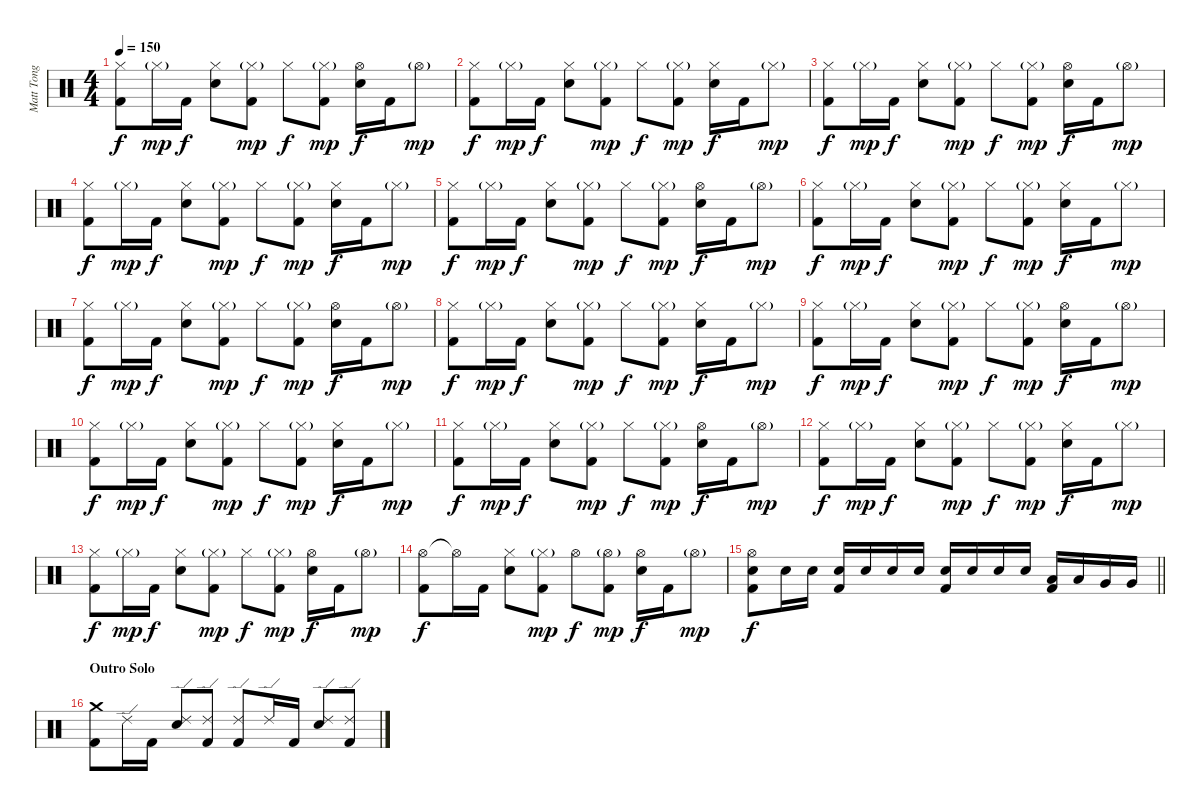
\track ("Matt Tong" "Matt Tong") {instrument percussion}
\staff {score}
\articulation defaults
\ts (4 4)
\tempo 150
\clef neutral
\ks c
("Hi-Hat (closed)" "Kick (hit) 2").8{dy f} "Hi-Hat (closed)"{g}.16{dy mp} "Kick (hit) 2".16{dy f} ("Hi-Hat (closed)" "Electric Snare (hit)").8 ("Hi-Hat (closed)"{g} "Kick (hit) 2").8{dy mp} "Hi-Hat (closed)".8{dy f} ("Hi-Hat (closed)"{g} "Kick (hit) 2").8{dy mp} ("Hi-Hat (open)" "Electric Snare (hit)").16{dy f} "Kick (hit) 2".16 "Hi-Hat (open)"{g}.8{dy mp} |
("Hi-Hat (closed)" "Kick (hit) 2").8{dy f} "Hi-Hat (closed)"{g}.16{dy mp} "Kick (hit) 2".16{dy f} ("Hi-Hat (closed)" "Electric Snare (hit)").8 ("Hi-Hat (closed)"{g} "Kick (hit) 2").8{dy mp} "Hi-Hat (closed)".8{dy f} ("Hi-Hat (closed)"{g} "Kick (hit) 2").8{dy mp} ("Hi-Hat (closed)" "Electric Snare (hit)").16{dy f} "Kick (hit) 2".16 "Hi-Hat (closed)"{g}.8{dy mp} |
("Hi-Hat (closed)" "Kick (hit) 2").8{dy f} "Hi-Hat (closed)"{g}.16{dy mp} "Kick (hit) 2".16{dy f} ("Hi-Hat (closed)" "Electric Snare (hit)").8 ("Hi-Hat (closed)"{g} "Kick (hit) 2").8{dy mp} "Hi-Hat (closed)".8{dy f} ("Hi-Hat (closed)"{g} "Kick (hit) 2").8{dy mp} ("Hi-Hat (open)" "Electric Snare (hit)").16{dy f} "Kick (hit) 2".16 "Hi-Hat (open)"{g}.8{dy mp} |
("Hi-Hat (closed)" "Kick (hit) 2").8{dy f} "Hi-Hat (closed)"{g}.16{dy mp} "Kick (hit) 2".16{dy f} ("Hi-Hat (closed)" "Electric Snare (hit)").8 ("Hi-Hat (closed)"{g} "Kick (hit) 2").8{dy mp} "Hi-Hat (closed)".8{dy f} ("Hi-Hat (closed)"{g} "Kick (hit) 2").8{dy mp} ("Hi-Hat (closed)" "Electric Snare (hit)").16{dy f} "Kick (hit) 2".16 "Hi-Hat (closed)"{g}.8{dy mp} |
("Hi-Hat (closed)" "Kick (hit) 2").8{dy f} "Hi-Hat (closed)"{g}.16{dy mp} "Kick (hit) 2".16{dy f} ("Hi-Hat (closed)" "Electric Snare (hit)").8 ("Hi-Hat (closed)"{g} "Kick (hit) 2").8{dy mp} "Hi-Hat (closed)".8{dy f} ("Hi-Hat (closed)"{g} "Kick (hit) 2").8{dy mp} ("Hi-Hat (open)" "Electric Snare (hit)").16{dy f} "Kick (hit) 2".16 "Hi-Hat (open)"{g}.8{dy mp} |
("Hi-Hat (closed)" "Kick (hit) 2").8{dy f} "Hi-Hat (closed)"{g}.16{dy mp} "Kick (hit) 2".16{dy f} ("Hi-Hat (closed)" "Electric Snare (hit)").8 ("Hi-Hat (closed)"{g} "Kick (hit) 2").8{dy mp} "Hi-Hat (closed)".8{dy f} ("Hi-Hat (closed)"{g} "Kick (hit) 2").8{dy mp} ("Hi-Hat (closed)" "Electric Snare (hit)").16{dy f} "Kick (hit) 2".16 "Hi-Hat (closed)"{g}.8{dy mp} |
("Hi-Hat (closed)" "Kick (hit) 2").8{dy f} "Hi-Hat (closed)"{g}.16{dy mp} "Kick (hit) 2".16{dy f} ("Hi-Hat (closed)" "Electric Snare (hit)").8 ("Hi-Hat (closed)"{g} "Kick (hit) 2").8{dy mp} "Hi-Hat (closed)".8{dy f} ("Hi-Hat (closed)"{g} "Kick (hit) 2").8{dy mp} ("Hi-Hat (open)" "Electric Snare (hit)").16{dy f} "Kick (hit) 2".16 "Hi-Hat (open)"{g}.8{dy mp} |
("Hi-Hat (closed)" "Kick (hit) 2").8{dy f} "Hi-Hat (closed)"{g}.16{dy mp} "Kick (hit) 2".16{dy f} ("Hi-Hat (closed)" "Electric Snare (hit)").8 ("Hi-Hat (closed)"{g} "Kick (hit) 2").8{dy mp} "Hi-Hat (closed)".8{dy f} ("Hi-Hat (closed)"{g} "Kick (hit) 2").8{dy mp} ("Hi-Hat (closed)" "Electric Snare (hit)").16{dy f} "Kick (hit) 2".16 "Hi-Hat (closed)"{g}.8{dy mp} |
("Hi-Hat (closed)" "Kick (hit) 2").8{dy f} "Hi-Hat (closed)"{g}.16{dy mp} "Kick (hit) 2".16{dy f} ("Hi-Hat (closed)" "Electric Snare (hit)").8 ("Hi-Hat (closed)"{g} "Kick (hit) 2").8{dy mp} "Hi-Hat (closed)".8{dy f} ("Hi-Hat (closed)"{g} "Kick (hit) 2").8{dy mp} ("Hi-Hat (open)" "Electric Snare (hit)").16{dy f} "Kick (hit) 2".16 "Hi-Hat (open)"{g}.8{dy mp} |
("Hi-Hat (closed)" "Kick (hit) 2").8{dy f} "Hi-Hat (closed)"{g}.16{dy mp} "Kick (hit) 2".16{dy f} ("Hi-Hat (closed)" "Electric Snare (hit)").8 ("Hi-Hat (closed)"{g} "Kick (hit) 2").8{dy mp} "Hi-Hat (closed)".8{dy f} ("Hi-Hat (closed)"{g} "Kick (hit) 2").8{dy mp} ("Hi-Hat (closed)" "Electric Snare (hit)").16{dy f} "Kick (hit) 2".16 "Hi-Hat (closed)"{g}.8{dy mp} |
("Hi-Hat (closed)" "Kick (hit) 2").8{dy f} "Hi-Hat (closed)"{g}.16{dy mp} "Kick (hit) 2".16{dy f} ("Hi-Hat (closed)" "Electric Snare (hit)").8 ("Hi-Hat (closed)"{g} "Kick (hit) 2").8{dy mp} "Hi-Hat (closed)".8{dy f} ("Hi-Hat (closed)"{g} "Kick (hit) 2").8{dy mp} ("Hi-Hat (open)" "Electric Snare (hit)").16{dy f} "Kick (hit) 2".16 "Hi-Hat (open)"{g}.8{dy mp} |
("Hi-Hat (closed)" "Kick (hit) 2").8{dy f} "Hi-Hat (closed)"{g}.16{dy mp} "Kick (hit) 2".16{dy f} ("Hi-Hat (closed)" "Electric Snare (hit)").8 ("Hi-Hat (closed)"{g} "Kick (hit) 2").8{dy mp} "Hi-Hat (closed)".8{dy f} ("Hi-Hat (closed)"{g} "Kick (hit) 2").8{dy mp} ("Hi-Hat (closed)" "Electric Snare (hit)").16{dy f} "Kick (hit) 2".16 "Hi-Hat (closed)"{g}.8{dy mp} |
("Hi-Hat (closed)" "Kick (hit) 2").8{dy f} "Hi-Hat (closed)"{g}.16{dy mp} "Kick (hit) 2".16{dy f} ("Hi-Hat (closed)" "Electric Snare (hit)").8 ("Hi-Hat (closed)"{g} "Kick (hit) 2").8{dy mp} "Hi-Hat (closed)".8{dy f} ("Hi-Hat (closed)"{g} "Kick (hit) 2").8{dy mp} ("Hi-Hat (open)" "Electric Snare (hit)").16{dy f} "Kick (hit) 2".16 "Hi-Hat (open)"{g}.8{dy mp} |
("Hi-Hat (open)" "Kick (hit) 2").8{dy f} "Hi-Hat (open)"{t}.16 "Kick (hit) 2".16 ("Hi-Hat (closed)" "Electric Snare (hit)").8 ("Hi-Hat (closed)"{g} "Kick (hit) 2").8{dy mp} "Hi-Hat (open)".8{dy f} ("Hi-Hat (open)"{g} "Kick (hit) 2").8{dy mp} ("Hi-Hat (open)" "Electric Snare (hit)").16{dy f} "Kick (hit) 2".16 "Hi-Hat (open)"{g}.8{dy mp} |
\barLineRight lightlight
("Hi-Hat (open)" "Electric Snare (hit)" "Kick (hit) 2").8{dy f} "Electric Snare (hit)".16 "Electric Snare (hit)".16 ("Electric Snare (hit)" "Kick (hit) 2").16 "Electric Snare (hit)".16 "Electric Snare (hit)".16 "Electric Snare (hit)".16 ("Electric Snare (hit)" "Kick (hit) 2").16 "Electric Snare (hit)".16 "Electric Snare (hit)".16 "Electric Snare (hit)".16 ("Low Tom (hit)" "Kick (hit) 2").16 "Low Tom (hit)".16 "Very Low Tom (hit)".16 "Very Low Tom (hit)".16 |
\section ("" "Outro Solo")
("Crash medium (hit)" "Kick (hit) 2").8 "Ride (edge) 2".16 "Kick (hit) 2".16 ("Ride (edge) 2" "Electric Snare (hit)").8 ("Ride (edge) 2" "Kick (hit) 2").8 ("Ride (edge) 2" "Kick (hit) 2").8 "Ride (edge) 2".16 "Kick (hit) 2".16 ("Ride (edge) 2" "Electric Snare (hit)").8 ("Ride (edge) 2" "Kick (hit) 2").8
